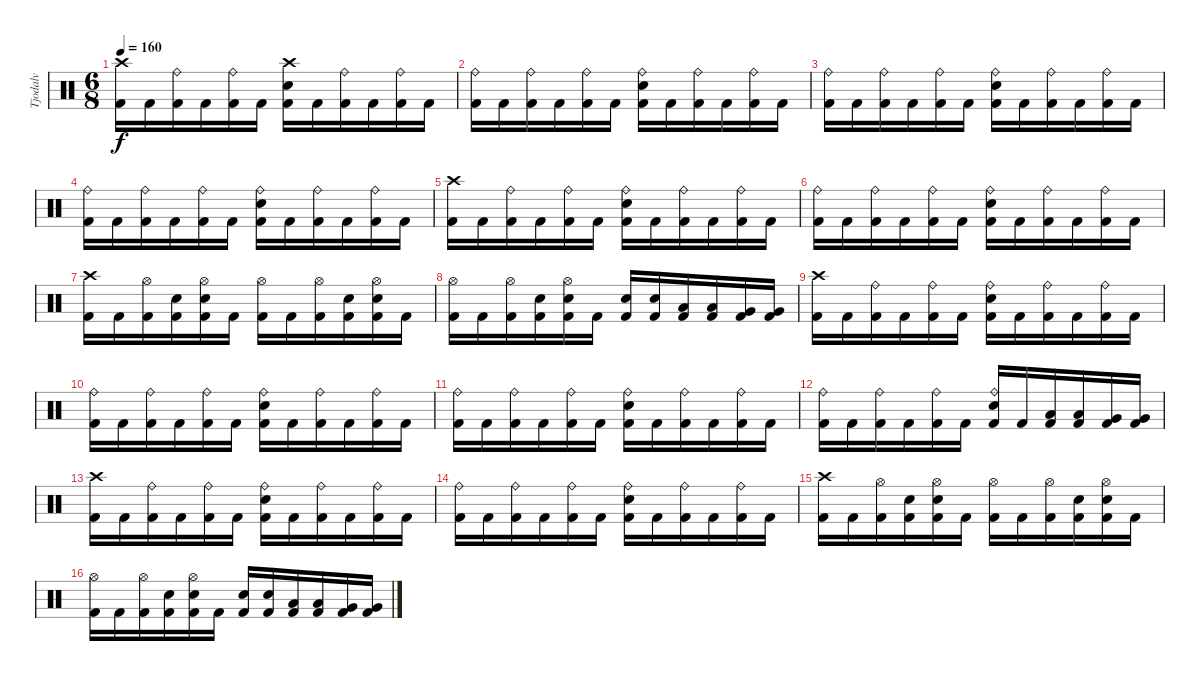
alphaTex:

\track ("Tjodalv" "Tjodalv") {instrument percussion}
\staff {score}
\articulation defaults
\ts (6 8)
\tempo 160
\clef neutral
\ks c
("Crash high (hit)" "Kick (hit) 2").16{dy f} "Kick (hit) 2".16 ("Ride (bell)" "Kick (hit) 2").16 "Kick (hit) 2".16 ("Ride (bell)" "Kick (hit) 2").16 "Kick (hit) 2".16 ("Crash high (hit)" "Snare (hit) 2" "Kick (hit) 2").16 "Kick (hit) 2".16 ("Ride (bell)" "Kick (hit) 2").16 "Kick (hit) 2".16 ("Ride (bell)" "Kick (hit) 2").16 "Kick (hit) 2".16 |
("Ride (bell)" "Kick (hit) 2").16 "Kick (hit) 2".16 ("Ride (bell)" "Kick (hit) 2").16 "Kick (hit) 2".16 ("Ride (bell)" "Kick (hit) 2").16 "Kick (hit) 2".16 ("Ride (bell)" "Snare (hit) 2" "Kick (hit) 2").16 "Kick (hit) 2".16 ("Ride (bell)" "Kick (hit) 2").16 "Kick (hit) 2".16 ("Ride (bell)" "Kick (hit) 2").16 "Kick (hit) 2".16 |
("Ride (bell)" "Kick (hit) 2").16 "Kick (hit) 2".16 ("Ride (bell)" "Kick (hit) 2").16 "Kick (hit) 2".16 ("Ride (bell)" "Kick (hit) 2").16 "Kick (hit) 2".16 ("Ride (bell)" "Snare (hit) 2" "Kick (hit) 2").16 "Kick (hit) 2".16 ("Ride (bell)" "Kick (hit) 2").16 "Kick (hit) 2".16 ("Ride (bell)" "Kick (hit) 2").16 "Kick (hit) 2".16 |
("Ride (bell)" "Kick (hit) 2").16 "Kick (hit) 2".16 ("Ride (bell)" "Kick (hit) 2").16 "Kick (hit) 2".16 ("Ride (bell)" "Kick (hit) 2").16 "Kick (hit) 2".16 ("Ride (bell)" "Snare (hit) 2" "Kick (hit) 2").16 "Kick (hit) 2".16 ("Ride (bell)" "Kick (hit) 2").16 "Kick (hit) 2".16 ("Ride (bell)" "Kick (hit) 2").16 "Kick (hit) 2".16 |
("Crash high (hit)" "Kick (hit) 2").16 "Kick (hit) 2".16 ("Ride (bell)" "Kick (hit) 2").16 "Kick (hit) 2".16 ("Ride (bell)" "Kick (hit) 2").16 "Kick (hit) 2".16 ("Ride (bell)" "Snare (hit) 2" "Kick (hit) 2").16 "Kick (hit) 2".16 ("Ride (bell)" "Kick (hit) 2").16 "Kick (hit) 2".16 ("Ride (bell)" "Kick (hit) 2").16 "Kick (hit) 2".16 |
("Ride (bell)" "Kick (hit) 2").16 "Kick (hit) 2".16 ("Ride (bell)" "Kick (hit) 2").16 "Kick (hit) 2".16 ("Ride (bell)" "Kick (hit) 2").16 "Kick (hit) 2".16 ("Ride (bell)" "Snare (hit) 2" "Kick (hit) 2").16 "Kick (hit) 2".16 ("Ride (bell)" "Kick (hit) 2").16 "Kick (hit) 2".16 ("Ride (bell)" "Kick (hit) 2").16 "Kick (hit) 2".16 |
("Crash high (hit)" "Kick (hit) 2").16 "Kick (hit) 2".16 ("Hi-Hat (open)" "Kick (hit) 2").16 ("Snare (hit) 2" "Kick (hit) 2").16 ("Hi-Hat (open)" "Snare (hit) 2" "Kick (hit) 2").16 "Kick (hit) 2".16 ("Hi-Hat (open)" "Kick (hit) 2").16 "Kick (hit) 2".16 ("Hi-Hat (open)" "Kick (hit) 2").16 ("Snare (hit) 2" "Kick (hit) 2").16 ("Hi-Hat (open)" "Snare (hit) 2" "Kick (hit) 2").16 "Kick (hit) 2".16 |
("Hi-Hat (open)" "Kick (hit) 2").16 "Kick (hit) 2".16 ("Hi-Hat (open)" "Kick (hit) 2").16 ("Snare (hit) 2" "Kick (hit) 2").16 ("Hi-Hat (open)" "Snare (hit) 2" "Kick (hit) 2").16 "Kick (hit) 2".16 ("Snare (hit) 2" "Kick (hit) 2").16 ("Snare (hit) 2" "Kick (hit) 2").16 ("Low Tom (hit)" "Kick (hit) 2").16 ("Low Tom (hit)" "Kick (hit) 2").16 ("Very Low Tom (hit)" "Kick (hit) 2").16 ("Very Low Tom (hit)" "Kick (hit) 2").16 |
("Crash high (hit)" "Kick (hit) 2").16 "Kick (hit) 2".16 ("Ride (bell)" "Kick (hit) 2").16 "Kick (hit) 2".16 ("Ride (bell)" "Kick (hit) 2").16 "Kick (hit) 2".16 ("Ride (bell)" "Snare (hit) 2" "Kick (hit) 2").16 "Kick (hit) 2".16 ("Ride (bell)" "Kick (hit) 2").16 "Kick (hit) 2".16 ("Ride (bell)" "Kick (hit) 2").16 "Kick (hit) 2".16 |
("Ride (bell)" "Kick (hit) 2").16 "Kick (hit) 2".16 ("Ride (bell)" "Kick (hit) 2").16 "Kick (hit) 2".16 ("Ride (bell)" "Kick (hit) 2").16 "Kick (hit) 2".16 ("Ride (bell)" "Snare (hit) 2" "Kick (hit) 2").16 "Kick (hit) 2".16 ("Ride (bell)" "Kick (hit) 2").16 "Kick (hit) 2".16 ("Ride (bell)" "Kick (hit) 2").16 "Kick (hit) 2".16 |
("Ride (bell)" "Kick (hit) 2").16 "Kick (hit) 2".16 ("Ride (bell)" "Kick (hit) 2").16 "Kick (hit) 2".16 ("Ride (bell)" "Kick (hit) 2").16 "Kick (hit) 2".16 ("Ride (bell)" "Snare (hit) 2" "Kick (hit) 2").16 "Kick (hit) 2".16 ("Ride (bell)" "Kick (hit) 2").16 "Kick (hit) 2".16 ("Ride (bell)" "Kick (hit) 2").16 "Kick (hit) 2".16 |
("Ride (bell)" "Kick (hit) 2").16 "Kick (hit) 2".16 ("Ride (bell)" "Kick (hit) 2").16 "Kick (hit) 2".16 ("Ride (bell)" "Kick (hit) 2").16 "Kick (hit) 2".16 ("Ride (bell)" "Snare (hit) 2" "Kick (hit) 2").16 "Kick (hit) 2".16 ("Low Tom (hit)" "Kick (hit) 2").16 ("Low Tom (hit)" "Kick (hit) 2").16 ("Very Low Tom (hit)" "Kick (hit) 2").16 ("Very Low Tom (hit)" "Kick (hit) 2").16 |
("Crash high (hit)" "Kick (hit) 2").16 "Kick (hit) 2".16 ("Ride (bell)" "Kick (hit) 2").16 "Kick (hit) 2".16 ("Ride (bell)" "Kick (hit) 2").16 "Kick (hit) 2".16 ("Ride (bell)" "Snare (hit) 2" "Kick (hit) 2").16 "Kick (hit) 2".16 ("Ride (bell)" "Kick (hit) 2").16 "Kick (hit) 2".16 ("Ride (bell)" "Kick (hit) 2").16 "Kick (hit) 2".16 |
("Ride (bell)" "Kick (hit) 2").16 "Kick (hit) 2".16 ("Ride (bell)" "Kick (hit) 2").16 "Kick (hit) 2".16 ("Ride (bell)" "Kick (hit) 2").16 "Kick (hit) 2".16 ("Ride (bell)" "Snare (hit) 2" "Kick (hit) 2").16 "Kick (hit) 2".16 ("Ride (bell)" "Kick (hit) 2").16 "Kick (hit) 2".16 ("Ride (bell)" "Kick (hit) 2").16 "Kick (hit) 2".16 |
("Crash high (hit)" "Kick (hit) 2").16 "Kick (hit) 2".16 ("Hi-Hat (open)" "Kick (hit) 2").16 ("Snare (hit) 2" "Kick (hit) 2").16 ("Hi-Hat (open)" "Snare (hit) 2" "Kick (hit) 2").16 "Kick (hit) 2".16 ("Hi-Hat (open)" "Kick (hit) 2").16 "Kick (hit) 2".16 ("Hi-Hat (open)" "Kick (hit) 2").16 ("Snare (hit) 2" "Kick (hit) 2").16 ("Hi-Hat (open)" "Snare (hit) 2" "Kick (hit) 2").16 "Kick (hit) 2".16 |
("Hi-Hat (open)" "Kick (hit) 2").16 "Kick (hit) 2".16 ("Hi-Hat (open)" "Kick (hit) 2").16 ("Snare (hit) 2" "Kick (hit) 2").16 ("Hi-Hat (open)" "Snare (hit) 2" "Kick (hit) 2").16 "Kick (hit) 2".16 ("Snare (hit) 2" "Kick (hit) 2").16 ("Snare (hit) 2" "Kick (hit) 2").16 ("Low Tom (hit)" "Kick (hit) 2").16 ("Low Tom (hit)" "Kick (hit) 2").16 ("Very Low Tom (hit)" "Kick (hit) 2").16 ("Very Low Tom (hit)" "Kick (hit) 2").16
